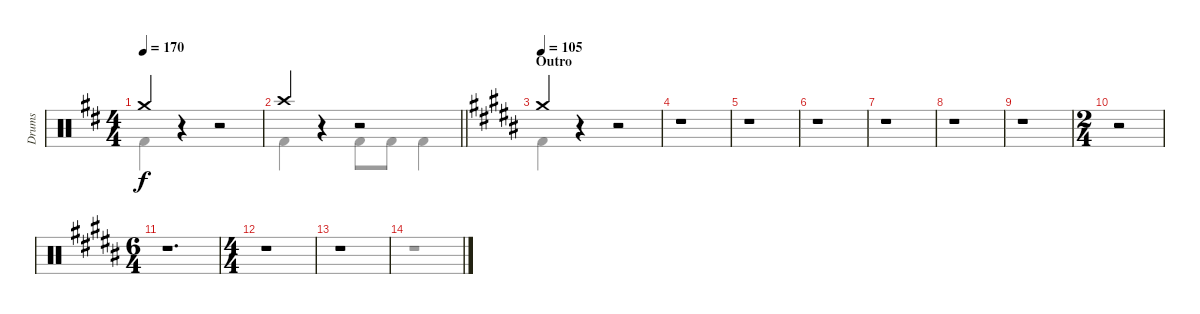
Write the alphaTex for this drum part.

\track ("Drums" "Drums") {instrument percussion}
\staff {score}
\articulation defaults
\voice
\ts (4 4)
\tempo 170
\clef neutral
\ks d "Crash medium (hit)".4{dy f}
r.4 r.2 |
\barLineRight lightlight "Crash high (hit)".4
r.4 r.2 |
\section ("" "Outro")
\tempo 105
\ks b "Crash medium (hit)".4
r.4 r.2 |
r.1 |
r.1 |
r.1 |
r.1 |
r.1 |
r.1 |
\ts (2 4)
r.2 |
\ts (6 4)
r.1{d} |
\ts (4 4)
r.1 |
r.1 |
\voice
\clef neutral
\ottava regular
\simile none
\ks d "Kick (hit) 2".4{dy f}
r.4 r.2 |
\barLineRight lightlight "Kick (hit) 2".4
r.4 "Kick (hit) 2".8 "Kick (hit) 2".8 "Kick (hit) 2".4 |
\ks b "Kick (hit) 2".4
r.4 r.2 |
r.1 |
r.1 |
r.1 |
r.1 |
r.1 |
r.1 |
r.2 |
r.1{d} |
r.1 |
r.1 |
r.1
